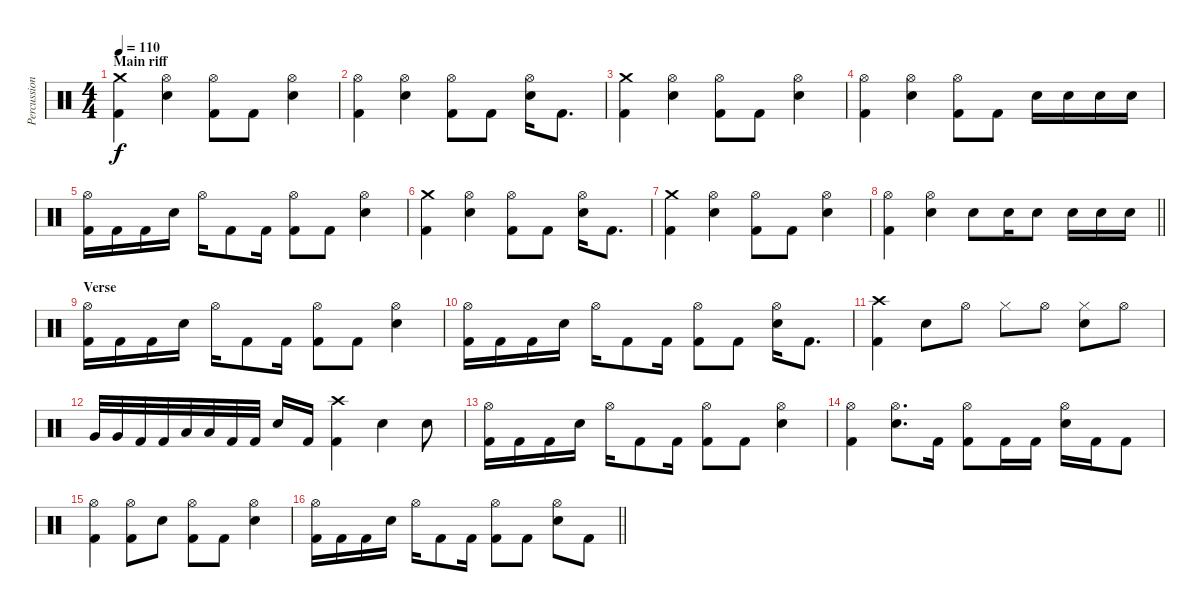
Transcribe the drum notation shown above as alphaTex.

\track ("Percussions" "Percussion") {instrument percussion}
\staff {score}
\articulation defaults
\ts (4 4)
\section ("" "Main riff")
\tempo 110
\clef neutral
\ks c
("Crash medium (hit)" "Kick (hit) 2").4{dy f} ("Hi-Hat (open)" "Electric Snare (hit)").4 ("Hi-Hat (open)" "Kick (hit) 2").8 "Kick (hit) 2".8 ("Hi-Hat (open)" "Electric Snare (hit)").4 |
("Hi-Hat (open)" "Kick (hit) 2").4 ("Hi-Hat (open)" "Electric Snare (hit)").4 ("Hi-Hat (open)" "Kick (hit) 2").8 "Kick (hit) 2".8 ("Hi-Hat (open)" "Electric Snare (hit)").16 "Kick (hit) 2".8{d} |
("Crash medium (hit)" "Kick (hit) 2").4 ("Hi-Hat (open)" "Electric Snare (hit)").4 ("Hi-Hat (open)" "Kick (hit) 2").8 "Kick (hit) 2".8 ("Hi-Hat (open)" "Electric Snare (hit)").4 |
("Hi-Hat (open)" "Kick (hit) 2").4 ("Hi-Hat (open)" "Electric Snare (hit)").4 ("Hi-Hat (open)" "Kick (hit) 2").8 "Kick (hit) 2".8 "Electric Snare (hit)".16 "Electric Snare (hit)".16 "Electric Snare (hit)".16 "Electric Snare (hit)".16 |
("Hi-Hat (open)" "Kick (hit) 2").16 "Kick (hit) 2".16 "Kick (hit) 2".16 "Electric Snare (hit)".16 "Hi-Hat (open)".16 "Kick (hit) 2".8 "Kick (hit) 2".16 ("Hi-Hat (open)" "Kick (hit) 2").8 "Kick (hit) 2".8 ("Hi-Hat (open)" "Electric Snare (hit)").4 |
("Crash medium (hit)" "Kick (hit) 2").4 ("Hi-Hat (open)" "Electric Snare (hit)").4 ("Hi-Hat (open)" "Kick (hit) 2").8 "Kick (hit) 2".8 ("Hi-Hat (open)" "Electric Snare (hit)").16 "Kick (hit) 2".8{d} |
("Crash medium (hit)" "Kick (hit) 2").4 ("Hi-Hat (open)" "Electric Snare (hit)").4 ("Hi-Hat (open)" "Kick (hit) 2").8 "Kick (hit) 2".8 ("Hi-Hat (open)" "Electric Snare (hit)").4 |
\barLineRight lightlight
("Hi-Hat (open)" "Kick (hit) 2").4 ("Hi-Hat (open)" "Electric Snare (hit)").4 "Electric Snare (hit)".8 "Electric Snare (hit)".16 "Electric Snare (hit)".8 "Electric Snare (hit)".16 "Electric Snare (hit)".16 "Electric Snare (hit)".16 |
\section ("" "Verse")
("Hi-Hat (open)" "Kick (hit) 2").16 "Kick (hit) 2".16 "Kick (hit) 2".16 "Electric Snare (hit)".16 "Hi-Hat (open)".16 "Kick (hit) 2".8 "Kick (hit) 2".16 ("Hi-Hat (open)" "Kick (hit) 2").8 "Kick (hit) 2".8 ("Hi-Hat (open)" "Snare (hit) 2").4 |
("Hi-Hat (open)" "Kick (hit) 2").16 "Kick (hit) 2".16 "Kick (hit) 2".16 "Electric Snare (hit)".16 "Hi-Hat (open)".16 "Kick (hit) 2".8 "Kick (hit) 2".16 ("Hi-Hat (open)" "Kick (hit) 2").8 "Kick (hit) 2".8 ("Hi-Hat (open)" "Electric Snare (hit)").16 "Kick (hit) 2".8{d} |
("Crash high (hit)" "Kick (hit) 2").4 "Electric Snare (hit)".8 "Hi-Hat (open)".8 "Hi-Hat (closed)".8 "Hi-Hat (open)".8 ("Hi-Hat (closed)" "Electric Snare (hit)").8 "Hi-Hat (open)".8 |
"Very Low Tom (hit)".32 "Very Low Tom (hit)".32 "Kick (hit) 2".32 "Kick (hit) 2".32 "Low Floor Tom (hit)".32 "Low Floor Tom (hit)".32 "Kick (hit) 2".32 "Kick (hit) 2".32 "Electric Snare (hit)".16 "Kick (hit) 2".16 ("Crash high (hit)" "Kick (hit) 2").4 "Electric Snare (hit)".4 "Electric Snare (hit)".8 |
("Hi-Hat (open)" "Kick (hit) 2").16 "Kick (hit) 2".16 "Kick (hit) 2".16 "Electric Snare (hit)".16 "Hi-Hat (open)".16 "Kick (hit) 2".8 "Kick (hit) 2".16 ("Hi-Hat (open)" "Kick (hit) 2").8 "Kick (hit) 2".8 ("Hi-Hat (open)" "Electric Snare (hit)").4 |
("Hi-Hat (open)" "Kick (hit) 2").4 ("Hi-Hat (open)" "Electric Snare (hit)").8{d} "Kick (hit) 2".16 ("Hi-Hat (open)" "Kick (hit) 2").8 "Kick (hit) 2".16 "Kick (hit) 2".16 ("Hi-Hat (open)" "Electric Snare (hit)").16 "Kick (hit) 2".16 "Kick (hit) 2".8 |
("Hi-Hat (open)" "Kick (hit) 2").4 ("Hi-Hat (open)" "Kick (hit) 2").8 "Electric Snare (hit)".8 ("Hi-Hat (open)" "Kick (hit) 2").8 "Kick (hit) 2".8 ("Hi-Hat (open)" "Electric Snare (hit)").4 |
\barLineRight lightlight
("Hi-Hat (open)" "Kick (hit) 2").16 "Kick (hit) 2".16 "Kick (hit) 2".16 "Electric Snare (hit)".16 "Hi-Hat (open)".16 "Kick (hit) 2".8 "Kick (hit) 2".16 ("Hi-Hat (open)" "Kick (hit) 2").8 "Kick (hit) 2".8 ("Hi-Hat (open)" "Electric Snare (hit)").8 "Kick (hit) 2".8
